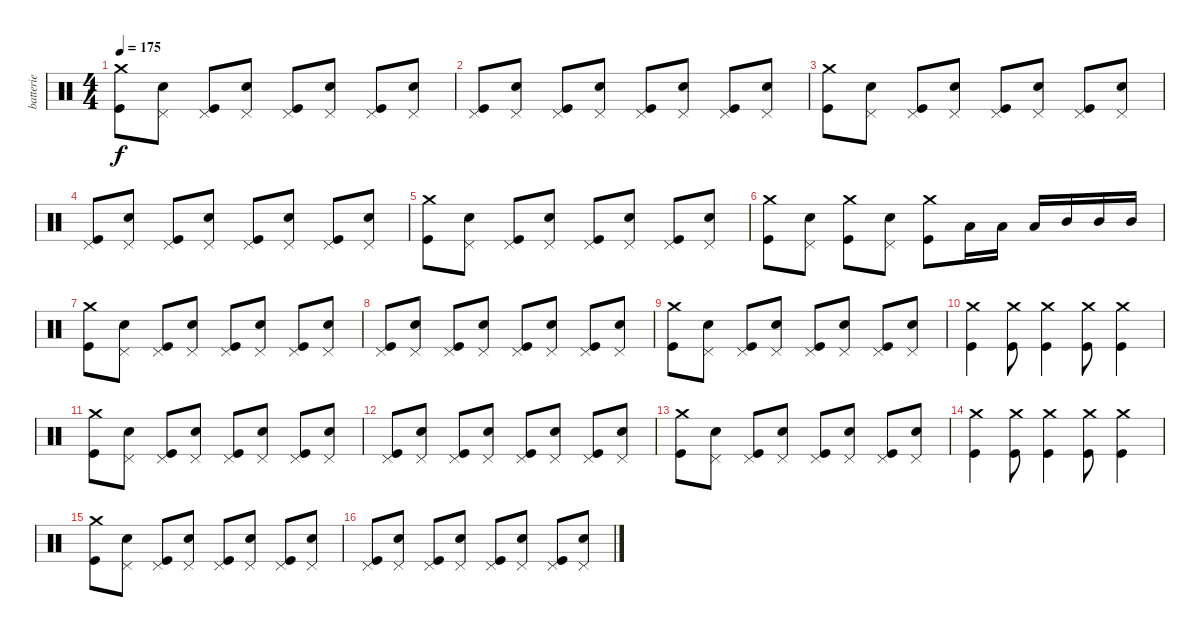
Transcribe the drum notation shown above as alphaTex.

\track ("batterie" "batterie") {instrument percussion}
\staff {score}
\articulation defaults
\ts (4 4)
\tempo 175
\clef neutral
\ks c
("Crash medium (hit)" "Kick (hit)").8{dy f} ("Pedal Hi-Hat (hit)" "Snare (hit) 2").8 ("Pedal Hi-Hat (hit)" "Kick (hit)").8 ("Pedal Hi-Hat (hit)" "Snare (hit) 2").8 ("Pedal Hi-Hat (hit)" "Kick (hit)").8 ("Pedal Hi-Hat (hit)" "Snare (hit) 2").8 ("Pedal Hi-Hat (hit)" "Kick (hit)").8 ("Pedal Hi-Hat (hit)" "Snare (hit) 2").8 |
("Pedal Hi-Hat (hit)" "Kick (hit)").8 ("Pedal Hi-Hat (hit)" "Snare (hit) 2").8 ("Pedal Hi-Hat (hit)" "Kick (hit)").8 ("Pedal Hi-Hat (hit)" "Snare (hit) 2").8 ("Pedal Hi-Hat (hit)" "Kick (hit)").8 ("Pedal Hi-Hat (hit)" "Snare (hit) 2").8 ("Pedal Hi-Hat (hit)" "Kick (hit)").8 ("Pedal Hi-Hat (hit)" "Snare (hit) 2").8 |
("Crash medium (hit)" "Kick (hit)").8 ("Pedal Hi-Hat (hit)" "Snare (hit) 2").8 ("Pedal Hi-Hat (hit)" "Kick (hit)").8 ("Pedal Hi-Hat (hit)" "Snare (hit) 2").8 ("Pedal Hi-Hat (hit)" "Kick (hit)").8 ("Pedal Hi-Hat (hit)" "Snare (hit) 2").8 ("Pedal Hi-Hat (hit)" "Kick (hit)").8 ("Pedal Hi-Hat (hit)" "Snare (hit) 2").8 |
("Pedal Hi-Hat (hit)" "Kick (hit)").8 ("Pedal Hi-Hat (hit)" "Snare (hit) 2").8 ("Pedal Hi-Hat (hit)" "Kick (hit)").8 ("Pedal Hi-Hat (hit)" "Snare (hit) 2").8 ("Pedal Hi-Hat (hit)" "Kick (hit)").8 ("Pedal Hi-Hat (hit)" "Snare (hit) 2").8 ("Pedal Hi-Hat (hit)" "Kick (hit)").8 ("Pedal Hi-Hat (hit)" "Snare (hit) 2").8 |
("Crash medium (hit)" "Kick (hit)").8 ("Pedal Hi-Hat (hit)" "Snare (hit) 2").8 ("Pedal Hi-Hat (hit)" "Kick (hit)").8 ("Pedal Hi-Hat (hit)" "Snare (hit) 2").8 ("Pedal Hi-Hat (hit)" "Kick (hit)").8 ("Pedal Hi-Hat (hit)" "Snare (hit) 2").8 ("Pedal Hi-Hat (hit)" "Kick (hit)").8 ("Pedal Hi-Hat (hit)" "Snare (hit) 2").8 |
("Crash medium (hit)" "Kick (hit)").8 ("Pedal Hi-Hat (hit)" "Snare (hit) 2").8 ("Crash medium (hit)" "Kick (hit)").8 ("Pedal Hi-Hat (hit)" "Snare (hit) 2").8 ("Crash medium (hit)" "Kick (hit)").8 "Low Tom (hit)".16 "Low Tom (hit)".16 "Low Tom (hit)".16 "Mid Tom (hit)".16 "Mid Tom (hit)".16 "Mid Tom (hit)".16 |
("Crash medium (hit)" "Kick (hit)").8 ("Pedal Hi-Hat (hit)" "Snare (hit) 2").8 ("Pedal Hi-Hat (hit)" "Kick (hit)").8 ("Pedal Hi-Hat (hit)" "Snare (hit) 2").8 ("Pedal Hi-Hat (hit)" "Kick (hit)").8 ("Pedal Hi-Hat (hit)" "Snare (hit) 2").8 ("Pedal Hi-Hat (hit)" "Kick (hit)").8 ("Pedal Hi-Hat (hit)" "Snare (hit) 2").8 |
("Pedal Hi-Hat (hit)" "Kick (hit)").8 ("Pedal Hi-Hat (hit)" "Snare (hit) 2").8 ("Pedal Hi-Hat (hit)" "Kick (hit)").8 ("Pedal Hi-Hat (hit)" "Snare (hit) 2").8 ("Pedal Hi-Hat (hit)" "Kick (hit)").8 ("Pedal Hi-Hat (hit)" "Snare (hit) 2").8 ("Pedal Hi-Hat (hit)" "Kick (hit)").8 ("Pedal Hi-Hat (hit)" "Snare (hit) 2").8 |
("Crash medium (hit)" "Kick (hit)").8 ("Pedal Hi-Hat (hit)" "Snare (hit) 2").8 ("Pedal Hi-Hat (hit)" "Kick (hit)").8 ("Pedal Hi-Hat (hit)" "Snare (hit) 2").8 ("Pedal Hi-Hat (hit)" "Kick (hit)").8 ("Pedal Hi-Hat (hit)" "Snare (hit) 2").8 ("Pedal Hi-Hat (hit)" "Kick (hit)").8 ("Pedal Hi-Hat (hit)" "Snare (hit) 2").8 |
("Crash medium (hit)" "Kick (hit)").4 ("Crash medium (hit)" "Kick (hit)").8 ("Crash medium (hit)" "Kick (hit)").4 ("Crash medium (hit)" "Kick (hit)").8 ("Crash medium (hit)" "Kick (hit)").4 |
("Crash medium (hit)" "Kick (hit)").8 ("Pedal Hi-Hat (hit)" "Snare (hit) 2").8 ("Pedal Hi-Hat (hit)" "Kick (hit)").8 ("Pedal Hi-Hat (hit)" "Snare (hit) 2").8 ("Pedal Hi-Hat (hit)" "Kick (hit)").8 ("Pedal Hi-Hat (hit)" "Snare (hit) 2").8 ("Pedal Hi-Hat (hit)" "Kick (hit)").8 ("Pedal Hi-Hat (hit)" "Snare (hit) 2").8 |
("Pedal Hi-Hat (hit)" "Kick (hit)").8 ("Pedal Hi-Hat (hit)" "Snare (hit) 2").8 ("Pedal Hi-Hat (hit)" "Kick (hit)").8 ("Pedal Hi-Hat (hit)" "Snare (hit) 2").8 ("Pedal Hi-Hat (hit)" "Kick (hit)").8 ("Pedal Hi-Hat (hit)" "Snare (hit) 2").8 ("Pedal Hi-Hat (hit)" "Kick (hit)").8 ("Pedal Hi-Hat (hit)" "Snare (hit) 2").8 |
("Crash medium (hit)" "Kick (hit)").8 ("Pedal Hi-Hat (hit)" "Snare (hit) 2").8 ("Pedal Hi-Hat (hit)" "Kick (hit)").8 ("Pedal Hi-Hat (hit)" "Snare (hit) 2").8 ("Pedal Hi-Hat (hit)" "Kick (hit)").8 ("Pedal Hi-Hat (hit)" "Snare (hit) 2").8 ("Pedal Hi-Hat (hit)" "Kick (hit)").8 ("Pedal Hi-Hat (hit)" "Snare (hit) 2").8 |
("Crash medium (hit)" "Kick (hit)").4 ("Crash medium (hit)" "Kick (hit)").8 ("Crash medium (hit)" "Kick (hit)").4 ("Crash medium (hit)" "Kick (hit)").8 ("Crash medium (hit)" "Kick (hit)").4 |
("Crash medium (hit)" "Kick (hit)").8 ("Pedal Hi-Hat (hit)" "Snare (hit) 2").8 ("Pedal Hi-Hat (hit)" "Kick (hit)").8 ("Pedal Hi-Hat (hit)" "Snare (hit) 2").8 ("Pedal Hi-Hat (hit)" "Kick (hit)").8 ("Pedal Hi-Hat (hit)" "Snare (hit) 2").8 ("Pedal Hi-Hat (hit)" "Kick (hit)").8 ("Pedal Hi-Hat (hit)" "Snare (hit) 2").8 |
("Pedal Hi-Hat (hit)" "Kick (hit)").8 ("Pedal Hi-Hat (hit)" "Snare (hit) 2").8 ("Pedal Hi-Hat (hit)" "Kick (hit)").8 ("Pedal Hi-Hat (hit)" "Snare (hit) 2").8 ("Pedal Hi-Hat (hit)" "Kick (hit)").8 ("Pedal Hi-Hat (hit)" "Snare (hit) 2").8 ("Pedal Hi-Hat (hit)" "Kick (hit)").8 ("Pedal Hi-Hat (hit)" "Snare (hit) 2").8
